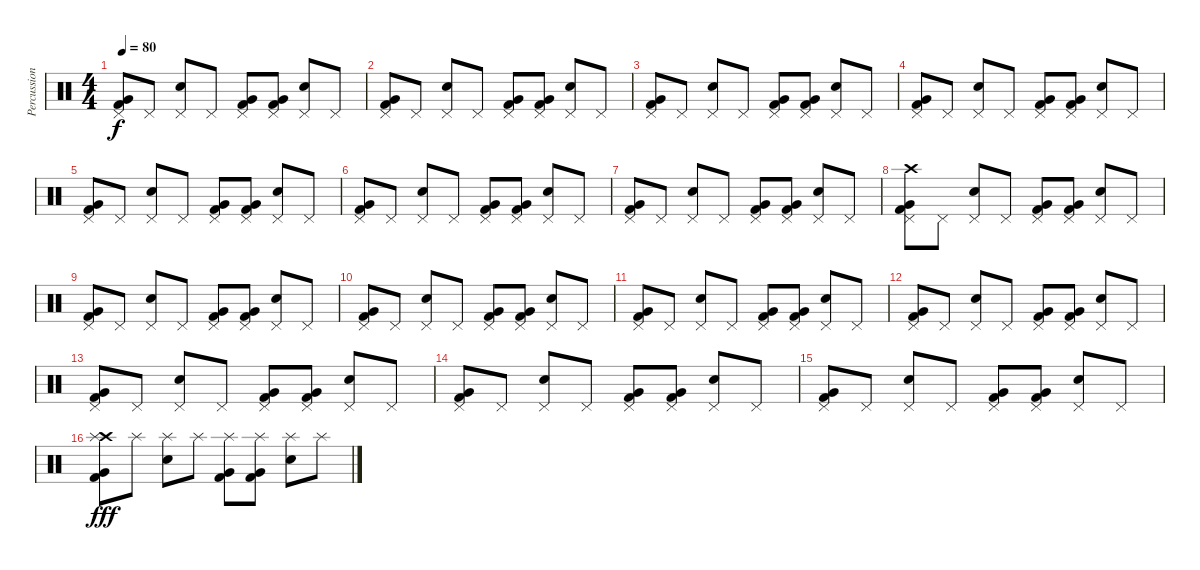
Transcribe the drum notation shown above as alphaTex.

\track ("Percussion" "Percussion") {instrument percussion}
\staff {score}
\articulation defaults
\ts (4 4)
\tempo 80
\clef neutral
\ks c
("Pedal Hi-Hat (hit)" "Very Low Tom (hit)" "Kick (hit) 2").8{dy f} "Pedal Hi-Hat (hit)".8 ("Pedal Hi-Hat (hit)" "Electric Snare (hit)").8 "Pedal Hi-Hat (hit)".8 ("Pedal Hi-Hat (hit)" "Very Low Tom (hit)" "Kick (hit) 2").8 ("Pedal Hi-Hat (hit)" "Very Low Tom (hit)" "Kick (hit) 2").8 ("Pedal Hi-Hat (hit)" "Electric Snare (hit)").8 "Pedal Hi-Hat (hit)".8 |
("Pedal Hi-Hat (hit)" "Very Low Tom (hit)" "Kick (hit) 2").8 "Pedal Hi-Hat (hit)".8 ("Pedal Hi-Hat (hit)" "Electric Snare (hit)").8 "Pedal Hi-Hat (hit)".8 ("Pedal Hi-Hat (hit)" "Very Low Tom (hit)" "Kick (hit) 2").8 ("Pedal Hi-Hat (hit)" "Very Low Tom (hit)" "Kick (hit) 2").8 ("Pedal Hi-Hat (hit)" "Electric Snare (hit)").8 "Pedal Hi-Hat (hit)".8 |
("Pedal Hi-Hat (hit)" "Very Low Tom (hit)" "Kick (hit) 2").8 "Pedal Hi-Hat (hit)".8 ("Pedal Hi-Hat (hit)" "Electric Snare (hit)").8 "Pedal Hi-Hat (hit)".8 ("Pedal Hi-Hat (hit)" "Very Low Tom (hit)" "Kick (hit) 2").8 ("Pedal Hi-Hat (hit)" "Very Low Tom (hit)" "Kick (hit) 2").8 ("Pedal Hi-Hat (hit)" "Electric Snare (hit)").8 "Pedal Hi-Hat (hit)".8 |
("Pedal Hi-Hat (hit)" "Very Low Tom (hit)" "Kick (hit) 2").8 "Pedal Hi-Hat (hit)".8 ("Pedal Hi-Hat (hit)" "Electric Snare (hit)").8 "Pedal Hi-Hat (hit)".8 ("Pedal Hi-Hat (hit)" "Very Low Tom (hit)" "Kick (hit) 2").8 ("Pedal Hi-Hat (hit)" "Very Low Tom (hit)" "Kick (hit) 2").8 ("Pedal Hi-Hat (hit)" "Electric Snare (hit)").8 "Pedal Hi-Hat (hit)".8 |
("Pedal Hi-Hat (hit)" "Very Low Tom (hit)" "Kick (hit) 2").8 "Pedal Hi-Hat (hit)".8 ("Pedal Hi-Hat (hit)" "Electric Snare (hit)").8 "Pedal Hi-Hat (hit)".8 ("Pedal Hi-Hat (hit)" "Very Low Tom (hit)" "Kick (hit) 2").8 ("Pedal Hi-Hat (hit)" "Very Low Tom (hit)" "Kick (hit) 2").8 ("Pedal Hi-Hat (hit)" "Electric Snare (hit)").8 "Pedal Hi-Hat (hit)".8 |
("Pedal Hi-Hat (hit)" "Very Low Tom (hit)" "Kick (hit) 2").8 "Pedal Hi-Hat (hit)".8 ("Pedal Hi-Hat (hit)" "Electric Snare (hit)").8 "Pedal Hi-Hat (hit)".8 ("Pedal Hi-Hat (hit)" "Very Low Tom (hit)" "Kick (hit) 2").8 ("Pedal Hi-Hat (hit)" "Very Low Tom (hit)" "Kick (hit) 2").8 ("Pedal Hi-Hat (hit)" "Electric Snare (hit)").8 "Pedal Hi-Hat (hit)".8 |
("Pedal Hi-Hat (hit)" "Very Low Tom (hit)" "Kick (hit) 2").8 "Pedal Hi-Hat (hit)".8 ("Pedal Hi-Hat (hit)" "Electric Snare (hit)").8 "Pedal Hi-Hat (hit)".8 ("Pedal Hi-Hat (hit)" "Very Low Tom (hit)" "Kick (hit) 2").8 ("Pedal Hi-Hat (hit)" "Very Low Tom (hit)" "Kick (hit) 2").8 ("Pedal Hi-Hat (hit)" "Electric Snare (hit)").8 "Pedal Hi-Hat (hit)".8 |
("Crash high (hit)" "Pedal Hi-Hat (hit)" "Very Low Tom (hit)" "Kick (hit) 2").8 "Pedal Hi-Hat (hit)".8 ("Pedal Hi-Hat (hit)" "Electric Snare (hit)").8 "Pedal Hi-Hat (hit)".8 ("Pedal Hi-Hat (hit)" "Very Low Tom (hit)" "Kick (hit) 2").8 ("Pedal Hi-Hat (hit)" "Very Low Tom (hit)" "Kick (hit) 2").8 ("Pedal Hi-Hat (hit)" "Electric Snare (hit)").8 "Pedal Hi-Hat (hit)".8 |
("Pedal Hi-Hat (hit)" "Very Low Tom (hit)" "Kick (hit) 2").8 "Pedal Hi-Hat (hit)".8 ("Pedal Hi-Hat (hit)" "Electric Snare (hit)").8 "Pedal Hi-Hat (hit)".8 ("Pedal Hi-Hat (hit)" "Very Low Tom (hit)" "Kick (hit) 2").8 ("Pedal Hi-Hat (hit)" "Very Low Tom (hit)" "Kick (hit) 2").8 ("Pedal Hi-Hat (hit)" "Electric Snare (hit)").8 "Pedal Hi-Hat (hit)".8 |
("Pedal Hi-Hat (hit)" "Very Low Tom (hit)" "Kick (hit) 2").8 "Pedal Hi-Hat (hit)".8 ("Pedal Hi-Hat (hit)" "Electric Snare (hit)").8 "Pedal Hi-Hat (hit)".8 ("Pedal Hi-Hat (hit)" "Very Low Tom (hit)" "Kick (hit) 2").8 ("Pedal Hi-Hat (hit)" "Very Low Tom (hit)" "Kick (hit) 2").8 ("Pedal Hi-Hat (hit)" "Electric Snare (hit)").8 "Pedal Hi-Hat (hit)".8 |
("Pedal Hi-Hat (hit)" "Very Low Tom (hit)" "Kick (hit) 2").8 "Pedal Hi-Hat (hit)".8 ("Pedal Hi-Hat (hit)" "Electric Snare (hit)").8 "Pedal Hi-Hat (hit)".8 ("Pedal Hi-Hat (hit)" "Very Low Tom (hit)" "Kick (hit) 2").8 ("Pedal Hi-Hat (hit)" "Very Low Tom (hit)" "Kick (hit) 2").8 ("Pedal Hi-Hat (hit)" "Electric Snare (hit)").8 "Pedal Hi-Hat (hit)".8 |
("Pedal Hi-Hat (hit)" "Very Low Tom (hit)" "Kick (hit) 2").8 "Pedal Hi-Hat (hit)".8 ("Pedal Hi-Hat (hit)" "Electric Snare (hit)").8 "Pedal Hi-Hat (hit)".8 ("Pedal Hi-Hat (hit)" "Very Low Tom (hit)" "Kick (hit) 2").8 ("Pedal Hi-Hat (hit)" "Very Low Tom (hit)" "Kick (hit) 2").8 ("Pedal Hi-Hat (hit)" "Electric Snare (hit)").8 "Pedal Hi-Hat (hit)".8 |
("Pedal Hi-Hat (hit)" "Very Low Tom (hit)" "Kick (hit) 2").8 "Pedal Hi-Hat (hit)".8 ("Pedal Hi-Hat (hit)" "Electric Snare (hit)").8 "Pedal Hi-Hat (hit)".8 ("Pedal Hi-Hat (hit)" "Very Low Tom (hit)" "Kick (hit) 2").8 ("Pedal Hi-Hat (hit)" "Very Low Tom (hit)" "Kick (hit) 2").8 ("Pedal Hi-Hat (hit)" "Electric Snare (hit)").8 "Pedal Hi-Hat (hit)".8 |
("Pedal Hi-Hat (hit)" "Very Low Tom (hit)" "Kick (hit) 2").8 "Pedal Hi-Hat (hit)".8 ("Pedal Hi-Hat (hit)" "Electric Snare (hit)").8 "Pedal Hi-Hat (hit)".8 ("Pedal Hi-Hat (hit)" "Very Low Tom (hit)" "Kick (hit) 2").8 ("Pedal Hi-Hat (hit)" "Very Low Tom (hit)" "Kick (hit) 2").8 ("Pedal Hi-Hat (hit)" "Electric Snare (hit)").8 "Pedal Hi-Hat (hit)".8 |
("Pedal Hi-Hat (hit)" "Very Low Tom (hit)" "Kick (hit) 2").8 "Pedal Hi-Hat (hit)".8 ("Pedal Hi-Hat (hit)" "Electric Snare (hit)").8 "Pedal Hi-Hat (hit)".8 ("Pedal Hi-Hat (hit)" "Very Low Tom (hit)" "Kick (hit) 2").8 ("Pedal Hi-Hat (hit)" "Very Low Tom (hit)" "Kick (hit) 2").8 ("Pedal Hi-Hat (hit)" "Electric Snare (hit)").8 "Pedal Hi-Hat (hit)".8 |
("Crash high (hit)" "Splash (hit)" "Very Low Tom (hit)" "Kick (hit) 2").8{dy fff} "Splash (hit)".8 ("Splash (hit)" "Electric Snare (hit)").8 "Splash (hit)".8 ("Splash (hit)" "Very Low Tom (hit)" "Kick (hit) 2").8 ("Splash (hit)" "Very Low Tom (hit)" "Kick (hit) 2").8 ("Splash (hit)" "Electric Snare (hit)").8 "Splash (hit)".8
